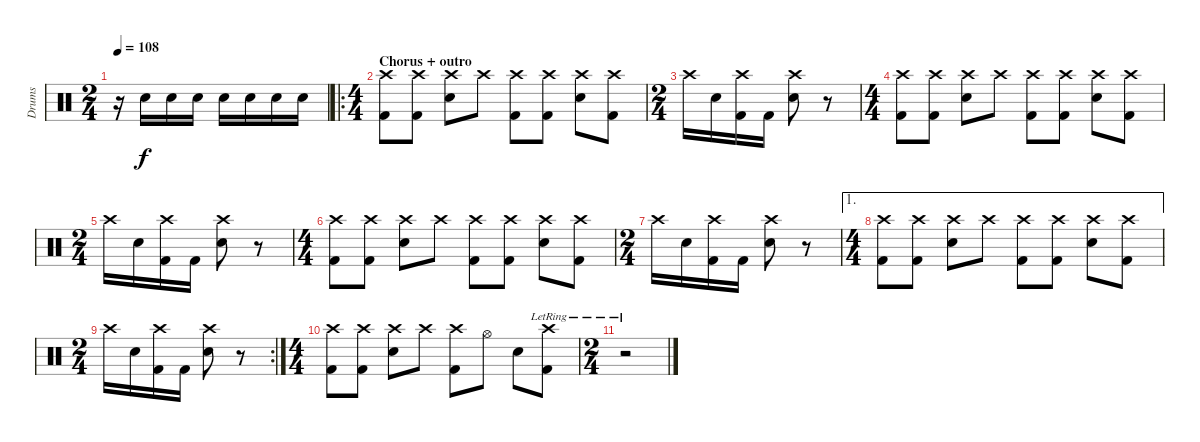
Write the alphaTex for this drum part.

\track ("Drums" "Drums") {instrument percussion}
\staff {score}
\articulation defaults
\ts (2 4)
\tempo 108
\clef neutral
\ks c
r.16{dy f} "Snare (hit) 2".16 "Snare (hit) 2".16 "Snare (hit) 2".16 "Snare (hit) 2".16 "Snare (hit) 2".16 "Snare (hit) 2".16 "Snare (hit) 2".16 |
\ro
\ts (4 4)
\section ("" "Chorus + outro")
("Crash high (hit)" "Kick (hit) 2").8 ("Crash high (hit)" "Kick (hit) 2").8 ("Crash high (hit)" "Snare (hit) 2").8 "Crash high (hit)".8 ("Crash high (hit)" "Kick (hit) 2").8 ("Crash high (hit)" "Kick (hit) 2").8 ("Crash high (hit)" "Snare (hit) 2").8 ("Crash high (hit)" "Kick (hit) 2").8 |
\ts (2 4)
"Crash high (hit)".16 "Snare (hit) 2".16 ("Crash high (hit)" "Kick (hit) 2").16 "Kick (hit) 2".16 ("Crash high (hit)" "Snare (hit) 2").8 r.8 |
\ts (4 4)
("Crash high (hit)" "Kick (hit) 2").8 ("Crash high (hit)" "Kick (hit) 2").8 ("Crash high (hit)" "Snare (hit) 2").8 "Crash high (hit)".8 ("Crash high (hit)" "Kick (hit) 2").8 ("Crash high (hit)" "Kick (hit) 2").8 ("Crash high (hit)" "Snare (hit) 2").8 ("Crash high (hit)" "Kick (hit) 2").8 |
\ts (2 4)
"Crash high (hit)".16 "Snare (hit) 2".16 ("Crash high (hit)" "Kick (hit) 2").16 "Kick (hit) 2".16 ("Crash high (hit)" "Snare (hit) 2").8 r.8 |
\ts (4 4)
("Crash high (hit)" "Kick (hit) 2").8 ("Crash high (hit)" "Kick (hit) 2").8 ("Crash high (hit)" "Snare (hit) 2").8 "Crash high (hit)".8 ("Crash high (hit)" "Kick (hit) 2").8 ("Crash high (hit)" "Kick (hit) 2").8 ("Crash high (hit)" "Snare (hit) 2").8 ("Crash high (hit)" "Kick (hit) 2").8 |
\ts (2 4)
"Crash high (hit)".16 "Snare (hit) 2".16 ("Crash high (hit)" "Kick (hit) 2").16 "Kick (hit) 2".16 ("Crash high (hit)" "Snare (hit) 2").8 r.8 |
\ae 1
\ts (4 4)
("Crash high (hit)" "Kick (hit) 2").8 ("Crash high (hit)" "Kick (hit) 2").8 ("Crash high (hit)" "Snare (hit) 2").8 "Crash high (hit)".8 ("Crash high (hit)" "Kick (hit) 2").8 ("Crash high (hit)" "Kick (hit) 2").8 ("Crash high (hit)" "Snare (hit) 2").8 ("Crash high (hit)" "Kick (hit) 2").8 |
\rc 2
\ts (2 4)
"Crash high (hit)".16 "Snare (hit) 2".16 ("Crash high (hit)" "Kick (hit) 2").16 "Kick (hit) 2".16 ("Crash high (hit)" "Snare (hit) 2").8 r.8 |
\ts (4 4)
("Crash high (hit)" "Kick (hit) 2").8 ("Crash high (hit)" "Kick (hit) 2").8 ("Crash high (hit)" "Snare (hit) 2").8 "Crash high (hit)".8 ("Crash high (hit)" "Kick (hit) 2").8 "Hi-Hat (open)".8 "Snare (hit) 2".8 ("Crash high (hit)"{lr} "Kick (hit) 2").8 |
\ts (2 4)
r.2
